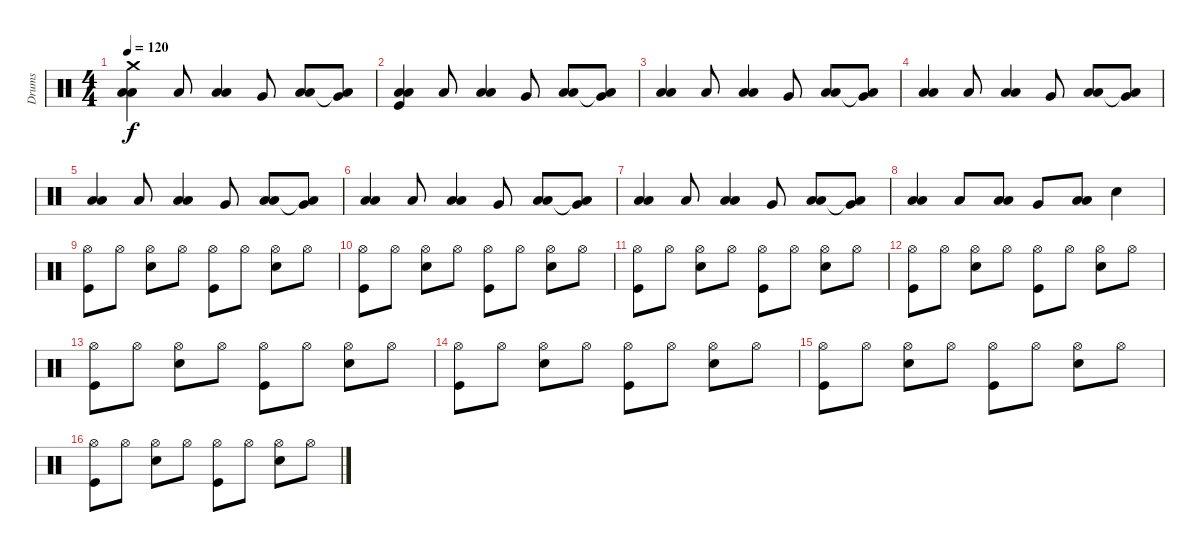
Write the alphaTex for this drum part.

\track ("Drums" "Drums") {instrument percussion}
\staff {score}
\articulation defaults
\ts (4 4)
\tempo 120
\clef neutral
\ks c
("Crash medium (hit)" "Low Tom (hit)" "Low Tom (hit)").4{bd 60 dy f} "Low Tom (hit)".8{bd 60} ("Low Tom (hit)" "Low Tom (hit)").4{bd 60} "Very Low Tom (hit)".8 ("Low Tom (hit)" "Low Tom (hit)").8{bd 60} ("Low Tom (hit)"{t} "Very Low Tom (hit)").8 |
("Low Tom (hit)" "Low Tom (hit)" "Kick (hit)").4{bd 60} "Low Tom (hit)".8{bd 60} ("Low Tom (hit)" "Low Tom (hit)").4{bd 60} "Very Low Tom (hit)".8 ("Low Tom (hit)" "Low Tom (hit)").8{bd 60} ("Low Tom (hit)"{t} "Very Low Tom (hit)").8 |
("Low Tom (hit)" "Low Tom (hit)").4{bd 60} "Low Tom (hit)".8{bd 60} ("Low Tom (hit)" "Low Tom (hit)").4{bd 60} "Very Low Tom (hit)".8 ("Low Tom (hit)" "Low Tom (hit)").8{bd 60} ("Low Tom (hit)"{t} "Very Low Tom (hit)").8 |
("Low Tom (hit)" "Low Tom (hit)").4{bd 60} "Low Tom (hit)".8{bd 60} ("Low Tom (hit)" "Low Tom (hit)").4{bd 60} "Very Low Tom (hit)".8 ("Low Tom (hit)" "Low Tom (hit)").8{bd 60} ("Low Tom (hit)"{t} "Very Low Tom (hit)").8 |
("Low Tom (hit)" "Low Tom (hit)").4{bd 60} "Low Tom (hit)".8{bd 60} ("Low Tom (hit)" "Low Tom (hit)").4{bd 60} "Very Low Tom (hit)".8 ("Low Tom (hit)" "Low Tom (hit)").8{bd 60} ("Low Tom (hit)"{t} "Very Low Tom (hit)").8 |
("Low Tom (hit)" "Low Tom (hit)").4{bd 60} "Low Tom (hit)".8{bd 60} ("Low Tom (hit)" "Low Tom (hit)").4{bd 60} "Very Low Tom (hit)".8 ("Low Tom (hit)" "Low Tom (hit)").8{bd 60} ("Low Tom (hit)"{t} "Very Low Tom (hit)").8 |
("Low Tom (hit)" "Low Tom (hit)").4{bd 60} "Low Tom (hit)".8{bd 60} ("Low Tom (hit)" "Low Tom (hit)").4{bd 60} "Very Low Tom (hit)".8 ("Low Tom (hit)" "Low Tom (hit)").8{bd 60} ("Low Tom (hit)"{t} "Very Low Tom (hit)").8 |
("Low Tom (hit)" "Low Tom (hit)").4{bd 60} "Low Tom (hit)".8{bd 60} ("Low Tom (hit)" "Low Tom (hit)").8{bd 60} "Very Low Tom (hit)".8 ("Low Tom (hit)" "Low Tom (hit)").8{bd 60} "Electric Snare (hit)".4 |
("Hi-Hat (open)" "Kick (hit)").8 "Hi-Hat (open)".8 ("Hi-Hat (open)" "Electric Snare (hit)").8 "Hi-Hat (open)".8 ("Hi-Hat (open)" "Kick (hit)").8 "Hi-Hat (open)".8 ("Hi-Hat (open)" "Electric Snare (hit)").8 "Hi-Hat (open)".8 |
("Hi-Hat (open)" "Kick (hit)").8 "Hi-Hat (open)".8 ("Hi-Hat (open)" "Electric Snare (hit)").8 "Hi-Hat (open)".8 ("Hi-Hat (open)" "Kick (hit)").8 "Hi-Hat (open)".8 ("Hi-Hat (open)" "Electric Snare (hit)").8 "Hi-Hat (open)".8 |
("Hi-Hat (open)" "Kick (hit)").8 "Hi-Hat (open)".8 ("Hi-Hat (open)" "Electric Snare (hit)").8 "Hi-Hat (open)".8 ("Hi-Hat (open)" "Kick (hit)").8 "Hi-Hat (open)".8 ("Hi-Hat (open)" "Electric Snare (hit)").8 "Hi-Hat (open)".8 |
("Hi-Hat (open)" "Kick (hit)").8 "Hi-Hat (open)".8 ("Hi-Hat (open)" "Electric Snare (hit)").8 "Hi-Hat (open)".8 ("Hi-Hat (open)" "Kick (hit)").8 "Hi-Hat (open)".8 ("Hi-Hat (open)" "Electric Snare (hit)").8 "Hi-Hat (open)".8 |
("Hi-Hat (open)" "Kick (hit)").8 "Hi-Hat (open)".8 ("Hi-Hat (open)" "Electric Snare (hit)").8 "Hi-Hat (open)".8 ("Hi-Hat (open)" "Kick (hit)").8 "Hi-Hat (open)".8 ("Hi-Hat (open)" "Electric Snare (hit)").8 "Hi-Hat (open)".8 |
("Hi-Hat (open)" "Kick (hit)").8 "Hi-Hat (open)".8 ("Hi-Hat (open)" "Electric Snare (hit)").8 "Hi-Hat (open)".8 ("Hi-Hat (open)" "Kick (hit)").8 "Hi-Hat (open)".8 ("Hi-Hat (open)" "Electric Snare (hit)").8 "Hi-Hat (open)".8 |
("Hi-Hat (open)" "Kick (hit)").8 "Hi-Hat (open)".8 ("Hi-Hat (open)" "Electric Snare (hit)").8 "Hi-Hat (open)".8 ("Hi-Hat (open)" "Kick (hit)").8 "Hi-Hat (open)".8 ("Hi-Hat (open)" "Electric Snare (hit)").8 "Hi-Hat (open)".8 |
("Hi-Hat (open)" "Kick (hit)").8 "Hi-Hat (open)".8 ("Hi-Hat (open)" "Electric Snare (hit)").8 "Hi-Hat (open)".8 ("Hi-Hat (open)" "Kick (hit)").8 "Hi-Hat (open)".8 ("Hi-Hat (open)" "Electric Snare (hit)").8 "Hi-Hat (open)".8
